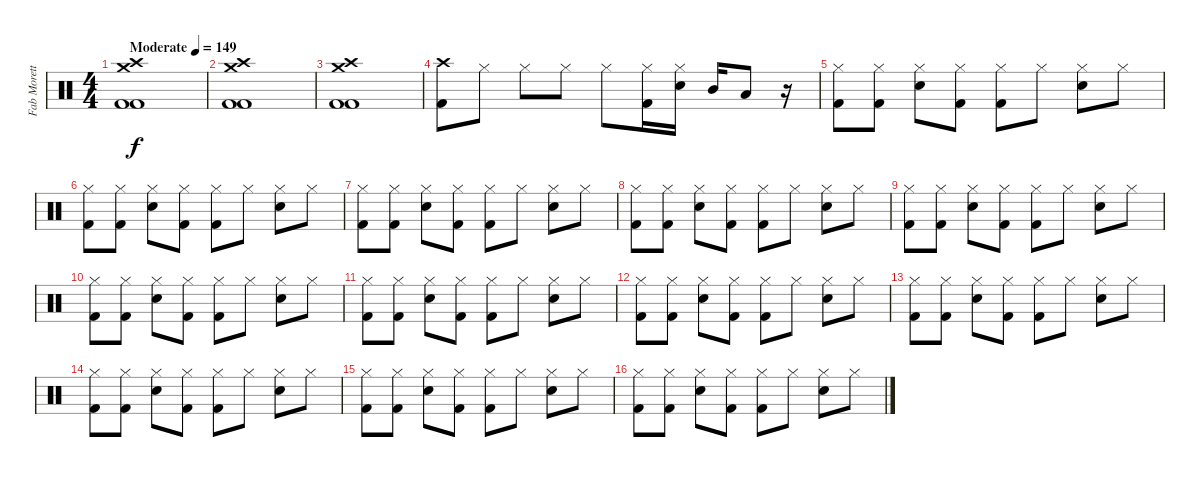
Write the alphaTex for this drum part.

\track ("Fab Moretti" "Fab Morett") {instrument percussion}
\staff {score}
\articulation defaults
\ts (4 4)
\tempo (149 "Moderate")
\clef neutral
\ks c
("Crash high (hit)" "Crash medium (hit)" "Kick (hit) 2" "Kick (hit) 2").1{dy f} |
("Crash high (hit)" "Crash medium (hit)" "Kick (hit) 2" "Kick (hit) 2").1 |
("Crash high (hit)" "Crash medium (hit)" "Kick (hit) 2" "Kick (hit) 2").1 |
("Crash high (hit)" "Kick (hit) 2").8 "Hi-Hat (closed)".8 "Hi-Hat (closed)".8 "Hi-Hat (closed)".8 "Hi-Hat (closed)".8 ("Hi-Hat (closed)" "Kick (hit) 2").16 ("Hi-Hat (closed)" "Electric Snare (hit)").16 "Mid Tom (hit)".16 "Low Tom (hit)".8 r.16 |
("Hi-Hat (closed)" "Kick (hit) 2").8 ("Hi-Hat (closed)" "Kick (hit) 2").8 ("Hi-Hat (closed)" "Electric Snare (hit)").8 ("Hi-Hat (closed)" "Kick (hit) 2").8 ("Hi-Hat (closed)" "Kick (hit) 2").8 "Hi-Hat (closed)".8 ("Hi-Hat (closed)" "Electric Snare (hit)").8 "Hi-Hat (closed)".8 |
("Hi-Hat (closed)" "Kick (hit) 2").8 ("Hi-Hat (closed)" "Kick (hit) 2").8 ("Hi-Hat (closed)" "Electric Snare (hit)").8 ("Hi-Hat (closed)" "Kick (hit) 2").8 ("Hi-Hat (closed)" "Kick (hit) 2").8 "Hi-Hat (closed)".8 ("Hi-Hat (closed)" "Electric Snare (hit)").8 "Hi-Hat (closed)".8 |
("Hi-Hat (closed)" "Kick (hit) 2").8 ("Hi-Hat (closed)" "Kick (hit) 2").8 ("Hi-Hat (closed)" "Electric Snare (hit)").8 ("Hi-Hat (closed)" "Kick (hit) 2").8 ("Hi-Hat (closed)" "Kick (hit) 2").8 "Hi-Hat (closed)".8 ("Hi-Hat (closed)" "Electric Snare (hit)").8 "Hi-Hat (closed)".8 |
("Hi-Hat (closed)" "Kick (hit) 2").8 ("Hi-Hat (closed)" "Kick (hit) 2").8 ("Hi-Hat (closed)" "Electric Snare (hit)").8 ("Hi-Hat (closed)" "Kick (hit) 2").8 ("Hi-Hat (closed)" "Kick (hit) 2").8 "Hi-Hat (closed)".8 ("Hi-Hat (closed)" "Electric Snare (hit)").8 "Hi-Hat (closed)".8 |
("Hi-Hat (closed)" "Kick (hit) 2").8 ("Hi-Hat (closed)" "Kick (hit) 2").8 ("Hi-Hat (closed)" "Electric Snare (hit)").8 ("Hi-Hat (closed)" "Kick (hit) 2").8 ("Hi-Hat (closed)" "Kick (hit) 2").8 "Hi-Hat (closed)".8 ("Hi-Hat (closed)" "Electric Snare (hit)").8 "Hi-Hat (closed)".8 |
("Hi-Hat (closed)" "Kick (hit) 2").8 ("Hi-Hat (closed)" "Kick (hit) 2").8 ("Hi-Hat (closed)" "Electric Snare (hit)").8 ("Hi-Hat (closed)" "Kick (hit) 2").8 ("Hi-Hat (closed)" "Kick (hit) 2").8 "Hi-Hat (closed)".8 ("Hi-Hat (closed)" "Electric Snare (hit)").8 "Hi-Hat (closed)".8 |
("Hi-Hat (closed)" "Kick (hit) 2").8 ("Hi-Hat (closed)" "Kick (hit) 2").8 ("Hi-Hat (closed)" "Electric Snare (hit)").8 ("Hi-Hat (closed)" "Kick (hit) 2").8 ("Hi-Hat (closed)" "Kick (hit) 2").8 "Hi-Hat (closed)".8 ("Hi-Hat (closed)" "Electric Snare (hit)").8 "Hi-Hat (closed)".8 |
("Hi-Hat (closed)" "Kick (hit) 2").8 ("Hi-Hat (closed)" "Kick (hit) 2").8 ("Hi-Hat (closed)" "Electric Snare (hit)").8 ("Hi-Hat (closed)" "Kick (hit) 2").8 ("Hi-Hat (closed)" "Kick (hit) 2").8 "Hi-Hat (closed)".8 ("Hi-Hat (closed)" "Electric Snare (hit)").8 "Hi-Hat (closed)".8 |
("Hi-Hat (closed)" "Kick (hit) 2").8 ("Hi-Hat (closed)" "Kick (hit) 2").8 ("Hi-Hat (closed)" "Electric Snare (hit)").8 ("Hi-Hat (closed)" "Kick (hit) 2").8 ("Hi-Hat (closed)" "Kick (hit) 2").8 "Hi-Hat (closed)".8 ("Hi-Hat (closed)" "Electric Snare (hit)").8 "Hi-Hat (closed)".8 |
("Hi-Hat (closed)" "Kick (hit) 2").8 ("Hi-Hat (closed)" "Kick (hit) 2").8 ("Hi-Hat (closed)" "Electric Snare (hit)").8 ("Hi-Hat (closed)" "Kick (hit) 2").8 ("Hi-Hat (closed)" "Kick (hit) 2").8 "Hi-Hat (closed)".8 ("Hi-Hat (closed)" "Electric Snare (hit)").8 "Hi-Hat (closed)".8 |
("Hi-Hat (closed)" "Kick (hit) 2").8 ("Hi-Hat (closed)" "Kick (hit) 2").8 ("Hi-Hat (closed)" "Electric Snare (hit)").8 ("Hi-Hat (closed)" "Kick (hit) 2").8 ("Hi-Hat (closed)" "Kick (hit) 2").8 "Hi-Hat (closed)".8 ("Hi-Hat (closed)" "Electric Snare (hit)").8 "Hi-Hat (closed)".8 |
("Hi-Hat (closed)" "Kick (hit) 2").8 ("Hi-Hat (closed)" "Kick (hit) 2").8 ("Hi-Hat (closed)" "Electric Snare (hit)").8 ("Hi-Hat (closed)" "Kick (hit) 2").8 ("Hi-Hat (closed)" "Kick (hit) 2").8 "Hi-Hat (closed)".8 ("Hi-Hat (closed)" "Electric Snare (hit)").8 "Hi-Hat (closed)".8
